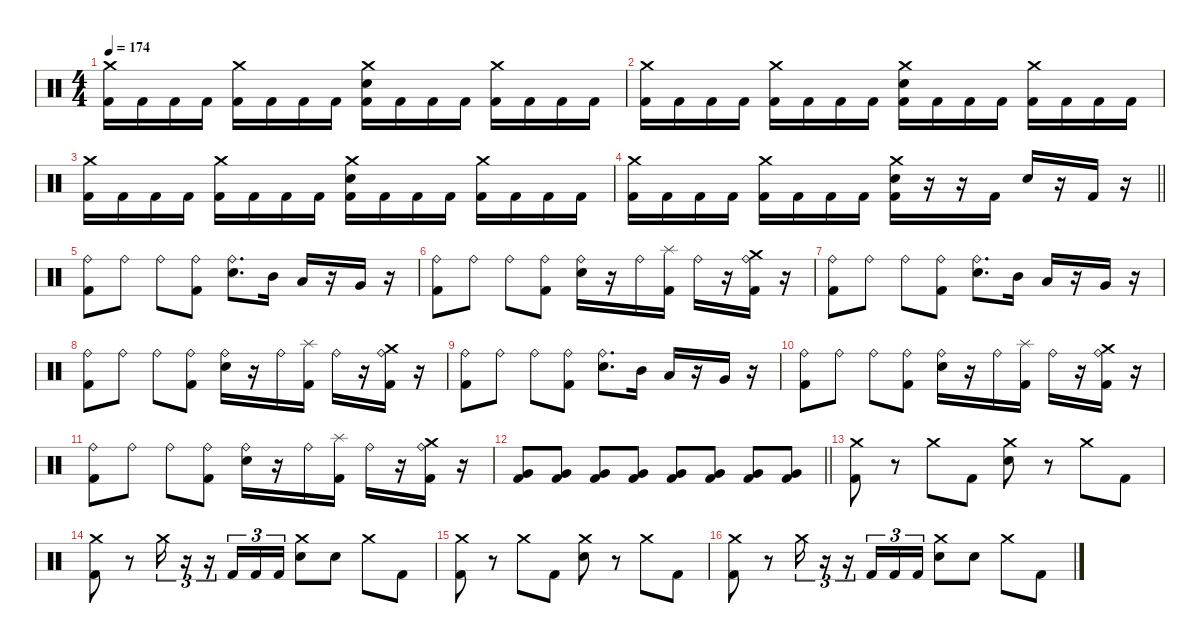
\defaultSystemsLayout 4
\hideDynamics
\bracketExtendMode nobrackets
\singleTrackTrackNamePolicy hidden
\multiTrackTrackNamePolicy hidden
\firstSystemTrackNameMode fullname
\firstSystemTrackNameOrientation horizontal
\otherSystemsTrackNameOrientation horizontal
\track ("Drums" "drm.") {instrument percussion}
\staff {score}
\articulation defaults
\ts (4 4)
\tempo 174
\clef neutral
\ks c
("Crash medium (hit)" "Kick (hit) 2").16{dy f beam Down} "Kick (hit) 2".16{beam Down} "Kick (hit) 2".16{beam Down} "Kick (hit) 2".16{beam Down} ("Crash medium (hit)" "Kick (hit) 2").16{beam Down} "Kick (hit) 2".16{beam Down} "Kick (hit) 2".16{beam Down} "Kick (hit) 2".16{beam Down} ("Crash medium (hit)" "Snare (hit) 2" "Kick (hit) 2").16{beam Down} "Kick (hit) 2".16{beam Down} "Kick (hit) 2".16{beam Down} "Kick (hit) 2".16{beam Down} ("Crash medium (hit)" "Kick (hit) 2").16{beam Down} "Kick (hit) 2".16{beam Down} "Kick (hit) 2".16{beam Down} "Kick (hit) 2".16{beam Down} |
("Crash medium (hit)" "Kick (hit) 2").16{beam Down} "Kick (hit) 2".16{beam Down} "Kick (hit) 2".16{beam Down} "Kick (hit) 2".16{beam Down} ("Crash medium (hit)" "Kick (hit) 2").16{beam Down} "Kick (hit) 2".16{beam Down} "Kick (hit) 2".16{beam Down} "Kick (hit) 2".16{beam Down} ("Crash medium (hit)" "Snare (hit) 2" "Kick (hit) 2").16{beam Down} "Kick (hit) 2".16{beam Down} "Kick (hit) 2".16{beam Down} "Kick (hit) 2".16{beam Down} ("Crash medium (hit)" "Kick (hit) 2").16{beam Down} "Kick (hit) 2".16{beam Down} "Kick (hit) 2".16{beam Down} "Kick (hit) 2".16{beam Down} |
("Crash medium (hit)" "Kick (hit) 2").16{beam Down} "Kick (hit) 2".16{beam Down} "Kick (hit) 2".16{beam Down} "Kick (hit) 2".16{beam Down} ("Crash medium (hit)" "Kick (hit) 2").16{beam Down} "Kick (hit) 2".16{beam Down} "Kick (hit) 2".16{beam Down} "Kick (hit) 2".16{beam Down} ("Crash medium (hit)" "Snare (hit) 2" "Kick (hit) 2").16{beam Down} "Kick (hit) 2".16{beam Down} "Kick (hit) 2".16{beam Down} "Kick (hit) 2".16{beam Down} ("Crash medium (hit)" "Kick (hit) 2").16{beam Down} "Kick (hit) 2".16{beam Down} "Kick (hit) 2".16{beam Down} "Kick (hit) 2".16{beam Down} |
\barLineRight lightlight
("Crash medium (hit)" "Kick (hit) 2").16{beam Down} "Kick (hit) 2".16{beam Down} "Kick (hit) 2".16{beam Down} "Kick (hit) 2".16{beam Down} ("Crash medium (hit)" "Kick (hit) 2").16{beam Down} "Kick (hit) 2".16{beam Down} "Kick (hit) 2".16{beam Down} "Kick (hit) 2".16{beam Down} ("Crash medium (hit)" "Snare (hit) 2" "Kick (hit) 2").16{beam Down} r.16{beam Down} r.16{beam Down} "Kick (hit) 2".16{beam Down} "Snare (hit) 2".16{beam Up} r.16{beam Up} "Kick (hit) 2".16{beam Up} r.16{beam Up} |
("Ride (bell)" "Kick (hit) 2").8{beam Down} "Ride (bell)".8{beam Down} "Ride (bell)".8{beam Down} ("Ride (bell)" "Kick (hit) 2").8{beam Down} ("Ride (bell)" "Snare (hit) 2").8{d beam Down} "Mid Tom (hit)".16{beam Down} "Low Tom (hit)".16{beam Up} r.16{beam Up} "Very Low Tom (hit)".16{beam Up} r.16{beam Up} |
("Ride (bell)" "Kick (hit) 2").8{beam Down} "Ride (bell)".8{beam Down} "Ride (bell)".8{beam Down} ("Ride (bell)" "Kick (hit) 2").8{beam Down} ("Ride (bell)" "Snare (hit) 2").16{beam Down} r.16{beam Down} "Ride (bell)".16{beam Down} ("Splash (hit)" "Kick (hit) 2").16{beam Down} "Ride (bell)".16{beam Down} r.16{beam Down} ("Crash medium (hit)" "Ride (bell)" "Kick (hit) 2").16{beam Down} r.16{beam Down} |
("Ride (bell)" "Kick (hit) 2").8{beam Down} "Ride (bell)".8{beam Down} "Ride (bell)".8{beam Down} ("Ride (bell)" "Kick (hit) 2").8{beam Down} ("Ride (bell)" "Snare (hit) 2").8{d beam Down} "Mid Tom (hit)".16{beam Down} "Low Tom (hit)".16{beam Up} r.16{beam Up} "Very Low Tom (hit)".16{beam Up} r.16{beam Up} |
("Ride (bell)" "Kick (hit) 2").8{beam Down} "Ride (bell)".8{beam Down} "Ride (bell)".8{beam Down} ("Ride (bell)" "Kick (hit) 2").8{beam Down} ("Ride (bell)" "Snare (hit) 2").16{beam Down} r.16{beam Down} "Ride (bell)".16{beam Down} ("Splash (hit)" "Kick (hit) 2").16{beam Down} "Ride (bell)".16{beam Down} r.16{beam Down} ("Crash medium (hit)" "Ride (bell)" "Kick (hit) 2").16{beam Down} r.16{beam Down} |
("Ride (bell)" "Kick (hit) 2").8{beam Down} "Ride (bell)".8{beam Down} "Ride (bell)".8{beam Down} ("Ride (bell)" "Kick (hit) 2").8{beam Down} ("Ride (bell)" "Snare (hit) 2").8{d beam Down} "Mid Tom (hit)".16{beam Down} "Low Tom (hit)".16{beam Up} r.16{beam Up} "Very Low Tom (hit)".16{beam Up} r.16{beam Up} |
("Ride (bell)" "Kick (hit) 2").8{beam Down} "Ride (bell)".8{beam Down} "Ride (bell)".8{beam Down} ("Ride (bell)" "Kick (hit) 2").8{beam Down} ("Ride (bell)" "Snare (hit) 2").16{beam Down} r.16{beam Down} "Ride (bell)".16{beam Down} ("Splash (hit)" "Kick (hit) 2").16{beam Down} "Ride (bell)".16{beam Down} r.16{beam Down} ("Crash medium (hit)" "Ride (bell)" "Kick (hit) 2").16{beam Down} r.16{beam Down} |
("Ride (bell)" "Kick (hit) 2").8{beam Down} "Ride (bell)".8{beam Down} "Ride (bell)".8{beam Down} ("Ride (bell)" "Kick (hit) 2").8{beam Down} ("Ride (bell)" "Snare (hit) 2").16{beam Down} r.16{beam Down} "Ride (bell)".16{beam Down} ("Splash (hit)" "Kick (hit) 2").16{beam Down} "Ride (bell)".16{beam Down} r.16{beam Down} ("Crash medium (hit)" "Ride (bell)" "Kick (hit) 2").16{beam Down} r.16{beam Down} |
\barLineRight lightlight
("Very Low Tom (hit)" "Kick (hit) 2").8{beam Up} ("Very Low Tom (hit)" "Kick (hit) 2").8{beam Up} ("Very Low Tom (hit)" "Kick (hit) 2").8{beam Up} ("Very Low Tom (hit)" "Kick (hit) 2").8{beam Up} ("Very Low Tom (hit)" "Kick (hit) 2").8{beam Up} ("Very Low Tom (hit)" "Kick (hit) 2").8{beam Up} ("Very Low Tom (hit)" "Kick (hit) 2").8{beam Up} ("Very Low Tom (hit)" "Kick (hit) 2").8{beam Up} |
("Crash medium (hit)" "Kick (hit) 2").8{beam Down} r.8{beam Down} "Crash medium (hit)".8{beam Down} "Kick (hit) 2".8{beam Down} ("Crash medium (hit)" "Snare (hit) 2").8{beam Down} r.8{beam Down} "Crash medium (hit)".8{beam Down} "Kick (hit) 2".8{beam Down} |
("Crash medium (hit)" "Kick (hit) 2").8{beam Down} r.8{beam Down} "Crash medium (hit)".16{tu (3 2) beam Down} r.16{tu (3 2) beam Down} r.16{tu (3 2) beam Down} "Kick (hit) 2".16{tu (3 2) beam Up} "Kick (hit) 2".16{tu (3 2) beam Up} "Kick (hit) 2".16{tu (3 2) beam Up} ("Crash medium (hit)" "Snare (hit) 2").8{beam Down} "Snare (hit) 2".8{beam Down} "Crash medium (hit)".8{beam Down} "Kick (hit) 2".8{beam Down} |
("Crash medium (hit)" "Kick (hit) 2").8{beam Down} r.8{beam Down} "Crash medium (hit)".8{beam Down} "Kick (hit) 2".8{beam Down} ("Crash medium (hit)" "Snare (hit) 2").8{beam Down} r.8{beam Down} "Crash medium (hit)".8{beam Down} "Kick (hit) 2".8{beam Down} |
("Crash medium (hit)" "Kick (hit) 2").8{beam Down} r.8{beam Down} "Crash medium (hit)".16{tu (3 2) beam Down} r.16{tu (3 2) beam Down} r.16{tu (3 2) beam Down} "Kick (hit) 2".16{tu (3 2) beam Up} "Kick (hit) 2".16{tu (3 2) beam Up} "Kick (hit) 2".16{tu (3 2) beam Up} ("Crash medium (hit)" "Snare (hit) 2").8{beam Down} "Snare (hit) 2".8{beam Down} "Crash medium (hit)".8{beam Down} "Kick (hit) 2".8{beam Down}
